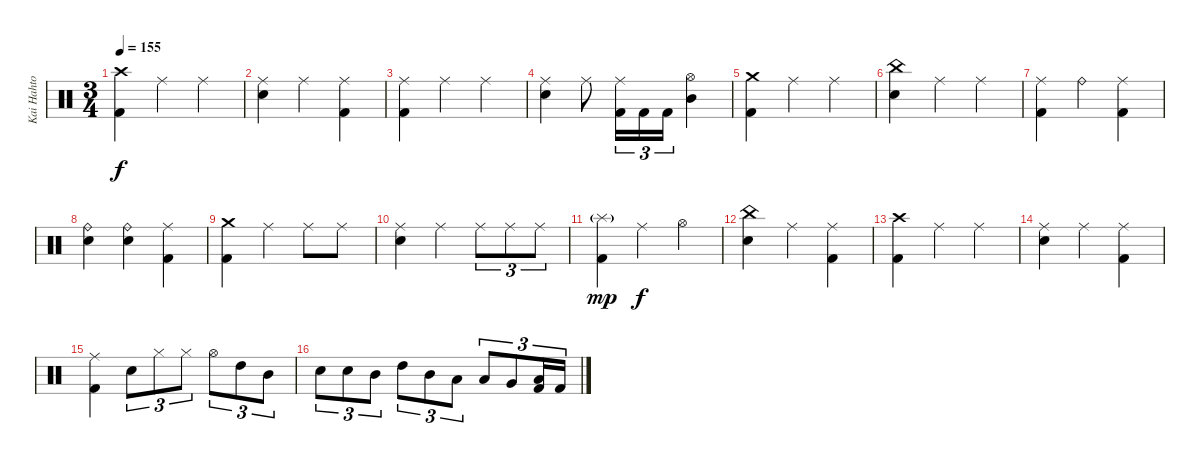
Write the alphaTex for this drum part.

\track ("Kai Hahto" "Kai Hahto") {instrument percussion}
\staff {score}
\articulation defaults
\ts (3 4)
\tempo 155
\clef neutral
\ks c
("Crash high (hit)" "Kick (hit) 2").4{dy f} "Ride (middle)".4 "Ride (middle)".4 |
("Ride (middle)" "Electric Snare (hit)").4 "Ride (middle)".4 ("Ride (middle)" "Kick (hit) 2").4 |
("Ride (middle)" "Kick (hit) 2").4 "Ride (middle)".4 "Ride (middle)".4 |
("Ride (middle)" "Electric Snare (hit)").4 "Ride (middle)".8 ("Ride (middle)" "Kick (hit) 2").16{tu (3 2)} "Kick (hit) 2".16{tu (3 2)} "Kick (hit) 2".16{tu (3 2)} ("Hi-Hat (open)" "Mid Tom (hit)").4 |
("Crash medium (hit)" "Kick (hit) 2").4 "Ride (middle)".4 "Ride (middle)".4 |
("China (hit)" "Electric Snare (hit)").4 "Ride (middle)".4 "Ride (middle)".4 |
("Ride (middle)" "Kick (hit) 2").4 "Ride (bell)".4 ("Ride (middle)" "Kick (hit) 2").4 |
("Ride (bell)" "Electric Snare (hit)").4 ("Ride (bell)" "Electric Snare (hit)").4 ("Ride (middle)" "Kick (hit) 2").4 |
("Crash medium (hit)" "Kick (hit) 2").4 "Ride (middle)".4 "Ride (middle)".8 "Ride (middle)".8 |
("Ride (middle)" "Electric Snare (hit)").4 "Ride (middle)".4 "Ride (middle)".8{tu (3 2)} "Ride (middle)".8{tu (3 2)} "Ride (middle)".8{tu (3 2)} |
("Splash (hit)"{g} "Kick (hit) 2").4{dy mp} "Ride (middle)".4{dy f} "Hi-Hat (open)".4 |
("China (hit)" "Electric Snare (hit)").4 "Ride (middle)".4 ("Ride (middle)" "Kick (hit) 2").4 |
("Crash high (hit)" "Kick (hit) 2").4 "Ride (middle)".4 "Ride (middle)".4 |
("Ride (middle)" "Electric Snare (hit)").4 "Ride (middle)".4 ("Ride (middle)" "Kick (hit) 2").4 |
("Ride (middle)" "Kick (hit) 2").4 "Electric Snare (hit)".8{tu (3 2)} "Hi-Hat (closed)".8{tu (3 2)} "Hi-Hat (closed)".8{tu (3 2)} "Hi-Hat (open)".8{tu (3 2)} "High Tom (hit)".8{tu (3 2)} "Mid Tom (hit)".8{tu (3 2)} |
"Electric Snare (hit)".8{tu (3 2)} "Electric Snare (hit)".8{tu (3 2)} "Mid Tom (hit)".8{tu (3 2)} "High Tom (hit)".8{tu (3 2)} "Mid Tom (hit)".8{tu (3 2)} "Low Tom (hit)".8{tu (3 2)} "Low Tom (hit)".8{tu (3 2)} "Very Low Tom (hit)".8{tu (3 2)} ("Low Floor Tom (hit)" "Kick (hit) 2").16{tu (3 2)} "Kick (hit) 2".16{tu (3 2)}
